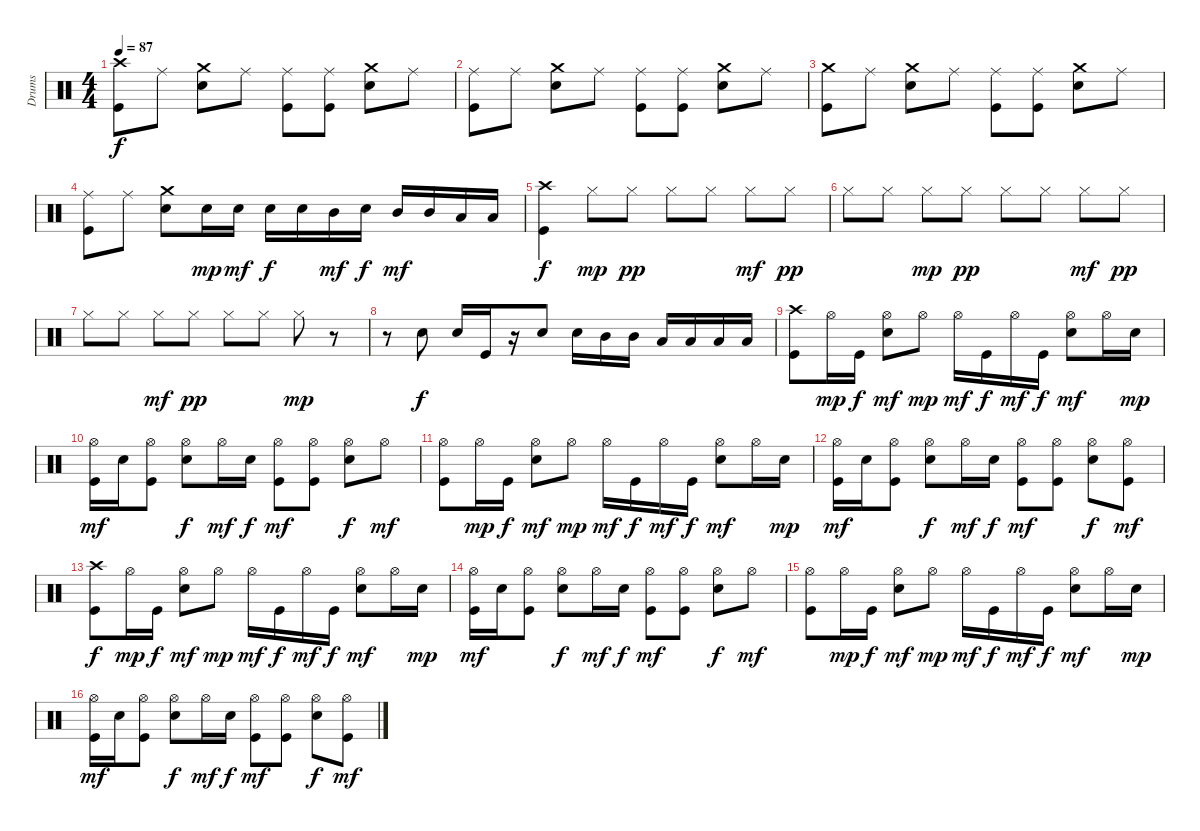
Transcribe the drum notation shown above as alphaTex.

\track ("Drums" "Drums") {instrument percussion}
\staff {score}
\articulation defaults
\ts (4 4)
\tempo 87
\clef neutral
\ks c
("Crash high (hit)" "Kick (hit)").8{dy f} "Ride (middle)".8 ("Crash medium (hit)" "Snare (hit) 2").8 "Ride (middle)".8 ("Ride (middle)" "Kick (hit)").8 ("Ride (middle)" "Kick (hit)").8 ("Crash medium (hit)" "Snare (hit) 2").8 "Ride (middle)".8 |
("Ride (middle)" "Kick (hit)").8 "Ride (middle)".8 ("Crash medium (hit)" "Snare (hit) 2").8 "Ride (middle)".8 ("Ride (middle)" "Kick (hit)").8 ("Ride (middle)" "Kick (hit)").8 ("Crash medium (hit)" "Snare (hit) 2").8 "Ride (middle)".8 |
("Crash medium (hit)" "Kick (hit)").8 "Ride (middle)".8 ("Crash medium (hit)" "Snare (hit) 2").8 "Ride (middle)".8 ("Ride (middle)" "Kick (hit)").8 ("Ride (middle)" "Kick (hit)").8 ("Crash medium (hit)" "Snare (hit) 2").8 "Ride (middle)".8 |
("Ride (middle)" "Kick (hit)").8 "Ride (middle)".8 ("Crash medium (hit)" "Snare (hit) 2").8 "Snare (hit) 2".16{dy mp} "Snare (hit) 2".16{dy mf} "Snare (hit) 2".16{dy f} "Snare (hit) 2".16 "Mid Tom (hit)".16{dy mf} "Snare (hit) 2".16{dy f} "Mid Tom (hit)".16{dy mf} "Mid Tom (hit)".16 "Low Tom (hit)".16 "Low Tom (hit)".16 |
("Crash high (hit)" "Kick (hit)").4{dy f} "Hi-Hat (closed)".8{dy mp} "Hi-Hat (closed)".8{dy pp} "Hi-Hat (closed)".8 "Hi-Hat (closed)".8 "Hi-Hat (closed)".8{dy mf} "Hi-Hat (closed)".8{dy pp} |
"Hi-Hat (closed)".8 "Hi-Hat (closed)".8 "Hi-Hat (closed)".8{dy mp} "Hi-Hat (closed)".8{dy pp} "Hi-Hat (closed)".8 "Hi-Hat (closed)".8 "Hi-Hat (closed)".8{dy mf} "Hi-Hat (closed)".8{dy pp} |
"Hi-Hat (closed)".8 "Hi-Hat (closed)".8 "Hi-Hat (closed)".8{dy mf} "Hi-Hat (closed)".8{dy pp} "Hi-Hat (closed)".8 "Hi-Hat (closed)".8 "Hi-Hat (closed)".8{dy mp} r.8 |
r.8 "Snare (hit) 2".8{dy f} "Snare (hit) 2".16 "Kick (hit)".16 r.16 "Snare (hit) 2".8 "Snare (hit) 2".16 "Mid Tom (hit)".16 "Mid Tom (hit)".16 "Low Tom (hit)".16 "Low Tom (hit)".16 "Low Floor Tom (hit)".16 "Low Floor Tom (hit)".16 |
("Crash high (hit)" "Kick (hit)").8 "Hi-Hat (open)".16{dy mp} "Kick (hit)".16{dy f} ("Hi-Hat (open)" "Snare (hit) 2").8{dy mf} "Hi-Hat (open)".8{dy mp} "Hi-Hat (open)".16{dy mf} "Kick (hit)".16{dy f} "Hi-Hat (open)".16{dy mf} "Kick (hit)".16{dy f} ("Hi-Hat (open)" "Snare (hit) 2").8{dy mf} "Hi-Hat (open)".16 "Snare (hit) 2".16{dy mp} |
("Hi-Hat (open)" "Kick (hit)").16{dy mf} "Snare (hit) 2".16 ("Hi-Hat (open)" "Kick (hit)").8 ("Hi-Hat (open)" "Snare (hit) 2").8{dy f} "Hi-Hat (open)".16{dy mf} "Snare (hit) 2".16{dy f} ("Hi-Hat (open)" "Kick (hit)").8{dy mf} ("Hi-Hat (open)" "Kick (hit)").8 ("Hi-Hat (open)" "Snare (hit) 2").8{dy f} "Hi-Hat (open)".8{dy mf} |
("Hi-Hat (open)" "Kick (hit)").8 "Hi-Hat (open)".16{dy mp} "Kick (hit)".16{dy f} ("Hi-Hat (open)" "Snare (hit) 2").8{dy mf} "Hi-Hat (open)".8{dy mp} "Hi-Hat (open)".16{dy mf} "Kick (hit)".16{dy f} "Hi-Hat (open)".16{dy mf} "Kick (hit)".16{dy f} ("Hi-Hat (open)" "Snare (hit) 2").8{dy mf} "Hi-Hat (open)".16 "Snare (hit) 2".16{dy mp} |
("Hi-Hat (open)" "Kick (hit)").16{dy mf} "Snare (hit) 2".16 ("Hi-Hat (open)" "Kick (hit)").8 ("Hi-Hat (open)" "Snare (hit) 2").8{dy f} "Hi-Hat (open)".16{dy mf} "Snare (hit) 2".16{dy f} ("Hi-Hat (open)" "Kick (hit)").8{dy mf} ("Hi-Hat (open)" "Kick (hit)").8 ("Hi-Hat (open)" "Snare (hit) 2").8{dy f} ("Hi-Hat (open)" "Kick (hit)").8{dy mf} |
("Crash high (hit)" "Kick (hit)").8{dy f} "Hi-Hat (open)".16{dy mp} "Kick (hit)".16{dy f} ("Hi-Hat (open)" "Snare (hit) 2").8{dy mf} "Hi-Hat (open)".8{dy mp} "Hi-Hat (open)".16{dy mf} "Kick (hit)".16{dy f} "Hi-Hat (open)".16{dy mf} "Kick (hit)".16{dy f} ("Hi-Hat (open)" "Snare (hit) 2").8{dy mf} "Hi-Hat (open)".16 "Snare (hit) 2".16{dy mp} |
("Hi-Hat (open)" "Kick (hit)").16{dy mf} "Snare (hit) 2".16 ("Hi-Hat (open)" "Kick (hit)").8 ("Hi-Hat (open)" "Snare (hit) 2").8{dy f} "Hi-Hat (open)".16{dy mf} "Snare (hit) 2".16{dy f} ("Hi-Hat (open)" "Kick (hit)").8{dy mf} ("Hi-Hat (open)" "Kick (hit)").8 ("Hi-Hat (open)" "Snare (hit) 2").8{dy f} "Hi-Hat (open)".8{dy mf} |
("Hi-Hat (open)" "Kick (hit)").8 "Hi-Hat (open)".16{dy mp} "Kick (hit)".16{dy f} ("Hi-Hat (open)" "Snare (hit) 2").8{dy mf} "Hi-Hat (open)".8{dy mp} "Hi-Hat (open)".16{dy mf} "Kick (hit)".16{dy f} "Hi-Hat (open)".16{dy mf} "Kick (hit)".16{dy f} ("Hi-Hat (open)" "Snare (hit) 2").8{dy mf} "Hi-Hat (open)".16 "Snare (hit) 2".16{dy mp} |
("Hi-Hat (open)" "Kick (hit)").16{dy mf} "Snare (hit) 2".16 ("Hi-Hat (open)" "Kick (hit)").8 ("Hi-Hat (open)" "Snare (hit) 2").8{dy f} "Hi-Hat (open)".16{dy mf} "Snare (hit) 2".16{dy f} ("Hi-Hat (open)" "Kick (hit)").8{dy mf} ("Hi-Hat (open)" "Kick (hit)").8 ("Hi-Hat (open)" "Snare (hit) 2").8{dy f} ("Hi-Hat (open)" "Kick (hit)").8{dy mf}
